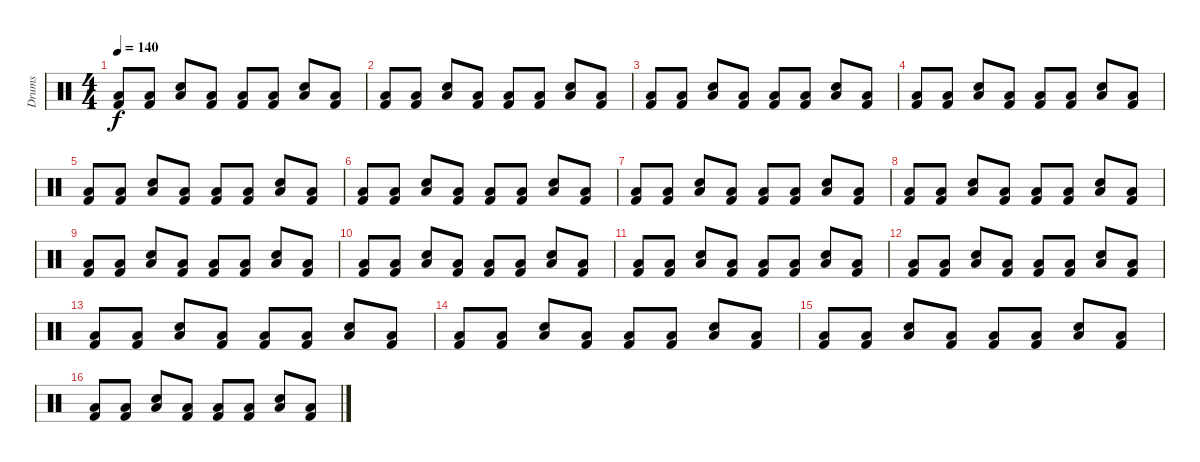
\track ("Drums" "Drums") {instrument percussion}
\staff {score}
\articulation defaults
\ts (4 4)
\tempo 140
\clef neutral
\ks c
("Low Floor Tom (hit)" "Kick (hit) 2").8{dy f} ("Low Floor Tom (hit)" "Kick (hit) 2").8 ("Low Floor Tom (hit)" "Snare (hit) 2").8 ("Low Floor Tom (hit)" "Kick (hit) 2").8 ("Low Floor Tom (hit)" "Kick (hit) 2").8 ("Low Floor Tom (hit)" "Kick (hit) 2").8 ("Low Floor Tom (hit)" "Snare (hit) 2").8 ("Low Floor Tom (hit)" "Kick (hit) 2").8 |
("Low Floor Tom (hit)" "Kick (hit) 2").8 ("Low Floor Tom (hit)" "Kick (hit) 2").8 ("Low Floor Tom (hit)" "Snare (hit) 2").8 ("Low Floor Tom (hit)" "Kick (hit) 2").8 ("Low Floor Tom (hit)" "Kick (hit) 2").8 ("Low Floor Tom (hit)" "Kick (hit) 2").8 ("Low Floor Tom (hit)" "Snare (hit) 2").8 ("Low Floor Tom (hit)" "Kick (hit) 2").8 |
("Low Floor Tom (hit)" "Kick (hit) 2").8 ("Low Floor Tom (hit)" "Kick (hit) 2").8 ("Low Floor Tom (hit)" "Snare (hit) 2").8 ("Low Floor Tom (hit)" "Kick (hit) 2").8 ("Low Floor Tom (hit)" "Kick (hit) 2").8 ("Low Floor Tom (hit)" "Kick (hit) 2").8 ("Low Floor Tom (hit)" "Snare (hit) 2").8 ("Low Floor Tom (hit)" "Kick (hit) 2").8 |
("Low Floor Tom (hit)" "Kick (hit) 2").8 ("Low Floor Tom (hit)" "Kick (hit) 2").8 ("Low Floor Tom (hit)" "Snare (hit) 2").8 ("Low Floor Tom (hit)" "Kick (hit) 2").8 ("Low Floor Tom (hit)" "Kick (hit) 2").8 ("Low Floor Tom (hit)" "Kick (hit) 2").8 ("Low Floor Tom (hit)" "Snare (hit) 2").8 ("Low Floor Tom (hit)" "Kick (hit) 2").8 |
("Low Floor Tom (hit)" "Kick (hit) 2").8 ("Low Floor Tom (hit)" "Kick (hit) 2").8 ("Low Floor Tom (hit)" "Snare (hit) 2").8 ("Low Floor Tom (hit)" "Kick (hit) 2").8 ("Low Floor Tom (hit)" "Kick (hit) 2").8 ("Low Floor Tom (hit)" "Kick (hit) 2").8 ("Low Floor Tom (hit)" "Snare (hit) 2").8 ("Low Floor Tom (hit)" "Kick (hit) 2").8 |
("Low Floor Tom (hit)" "Kick (hit) 2").8 ("Low Floor Tom (hit)" "Kick (hit) 2").8 ("Low Floor Tom (hit)" "Snare (hit) 2").8 ("Low Floor Tom (hit)" "Kick (hit) 2").8 ("Low Floor Tom (hit)" "Kick (hit) 2").8 ("Low Floor Tom (hit)" "Kick (hit) 2").8 ("Low Floor Tom (hit)" "Snare (hit) 2").8 ("Low Floor Tom (hit)" "Kick (hit) 2").8 |
("Low Floor Tom (hit)" "Kick (hit) 2").8 ("Low Floor Tom (hit)" "Kick (hit) 2").8 ("Low Floor Tom (hit)" "Snare (hit) 2").8 ("Low Floor Tom (hit)" "Kick (hit) 2").8 ("Low Floor Tom (hit)" "Kick (hit) 2").8 ("Low Floor Tom (hit)" "Kick (hit) 2").8 ("Low Floor Tom (hit)" "Snare (hit) 2").8 ("Low Floor Tom (hit)" "Kick (hit) 2").8 |
("Low Floor Tom (hit)" "Kick (hit) 2").8 ("Low Floor Tom (hit)" "Kick (hit) 2").8 ("Low Floor Tom (hit)" "Snare (hit) 2").8 ("Low Floor Tom (hit)" "Kick (hit) 2").8 ("Low Floor Tom (hit)" "Kick (hit) 2").8 ("Low Floor Tom (hit)" "Kick (hit) 2").8 ("Low Floor Tom (hit)" "Snare (hit) 2").8 ("Low Floor Tom (hit)" "Kick (hit) 2").8 |
("Low Floor Tom (hit)" "Kick (hit) 2").8 ("Low Floor Tom (hit)" "Kick (hit) 2").8 ("Low Floor Tom (hit)" "Snare (hit) 2").8 ("Low Floor Tom (hit)" "Kick (hit) 2").8 ("Low Floor Tom (hit)" "Kick (hit) 2").8 ("Low Floor Tom (hit)" "Kick (hit) 2").8 ("Low Floor Tom (hit)" "Snare (hit) 2").8 ("Low Floor Tom (hit)" "Kick (hit) 2").8 |
("Low Floor Tom (hit)" "Kick (hit) 2").8 ("Low Floor Tom (hit)" "Kick (hit) 2").8 ("Low Floor Tom (hit)" "Snare (hit) 2").8 ("Low Floor Tom (hit)" "Kick (hit) 2").8 ("Low Floor Tom (hit)" "Kick (hit) 2").8 ("Low Floor Tom (hit)" "Kick (hit) 2").8 ("Low Floor Tom (hit)" "Snare (hit) 2").8 ("Low Floor Tom (hit)" "Kick (hit) 2").8 |
("Low Floor Tom (hit)" "Kick (hit) 2").8 ("Low Floor Tom (hit)" "Kick (hit) 2").8 ("Low Floor Tom (hit)" "Snare (hit) 2").8 ("Low Floor Tom (hit)" "Kick (hit) 2").8 ("Low Floor Tom (hit)" "Kick (hit) 2").8 ("Low Floor Tom (hit)" "Kick (hit) 2").8 ("Low Floor Tom (hit)" "Snare (hit) 2").8 ("Low Floor Tom (hit)" "Kick (hit) 2").8 |
("Low Floor Tom (hit)" "Kick (hit) 2").8 ("Low Floor Tom (hit)" "Kick (hit) 2").8 ("Low Floor Tom (hit)" "Snare (hit) 2").8 ("Low Floor Tom (hit)" "Kick (hit) 2").8 ("Low Floor Tom (hit)" "Kick (hit) 2").8 ("Low Floor Tom (hit)" "Kick (hit) 2").8 ("Low Floor Tom (hit)" "Snare (hit) 2").8 ("Low Floor Tom (hit)" "Kick (hit) 2").8 |
("Low Floor Tom (hit)" "Kick (hit) 2").8 ("Low Floor Tom (hit)" "Kick (hit) 2").8 ("Low Floor Tom (hit)" "Snare (hit) 2").8 ("Low Floor Tom (hit)" "Kick (hit) 2").8 ("Low Floor Tom (hit)" "Kick (hit) 2").8 ("Low Floor Tom (hit)" "Kick (hit) 2").8 ("Low Floor Tom (hit)" "Snare (hit) 2").8 ("Low Floor Tom (hit)" "Kick (hit) 2").8 |
("Low Floor Tom (hit)" "Kick (hit) 2").8 ("Low Floor Tom (hit)" "Kick (hit) 2").8 ("Low Floor Tom (hit)" "Snare (hit) 2").8 ("Low Floor Tom (hit)" "Kick (hit) 2").8 ("Low Floor Tom (hit)" "Kick (hit) 2").8 ("Low Floor Tom (hit)" "Kick (hit) 2").8 ("Low Floor Tom (hit)" "Snare (hit) 2").8 ("Low Floor Tom (hit)" "Kick (hit) 2").8 |
("Low Floor Tom (hit)" "Kick (hit) 2").8 ("Low Floor Tom (hit)" "Kick (hit) 2").8 ("Low Floor Tom (hit)" "Snare (hit) 2").8 ("Low Floor Tom (hit)" "Kick (hit) 2").8 ("Low Floor Tom (hit)" "Kick (hit) 2").8 ("Low Floor Tom (hit)" "Kick (hit) 2").8 ("Low Floor Tom (hit)" "Snare (hit) 2").8 ("Low Floor Tom (hit)" "Kick (hit) 2").8 |
("Low Floor Tom (hit)" "Kick (hit) 2").8 ("Low Floor Tom (hit)" "Kick (hit) 2").8 ("Low Floor Tom (hit)" "Snare (hit) 2").8 ("Low Floor Tom (hit)" "Kick (hit) 2").8 ("Low Floor Tom (hit)" "Kick (hit) 2").8 ("Low Floor Tom (hit)" "Kick (hit) 2").8 ("Low Floor Tom (hit)" "Snare (hit) 2").8 ("Low Floor Tom (hit)" "Kick (hit) 2").8
